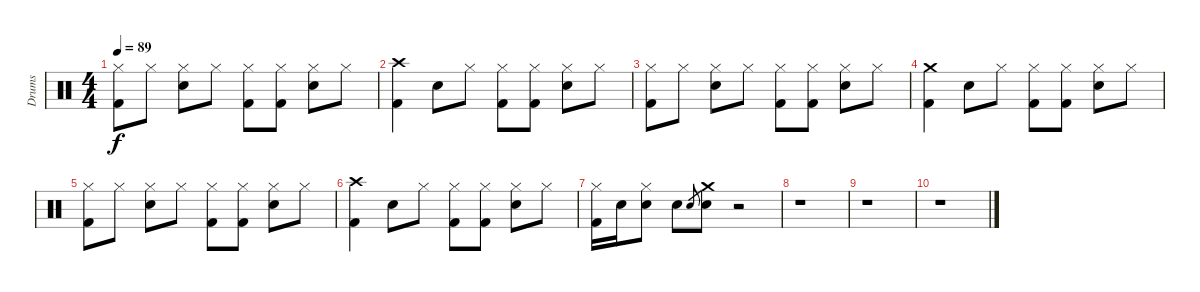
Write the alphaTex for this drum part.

\track ("Drums" "Drums") {instrument percussion}
\staff {score}
\articulation defaults
\ts (4 4)
\tempo 89
\clef neutral
\ks c
("Kick (hit) 2" "Hi-Hat (closed)").8{dy f} "Hi-Hat (closed)".8 ("Snare (hit) 2" "Hi-Hat (closed)").8 "Hi-Hat (closed)".8 ("Kick (hit) 2" "Hi-Hat (closed)").8 ("Kick (hit) 2" "Hi-Hat (closed)").8 ("Snare (hit) 2" "Hi-Hat (closed)").8 "Hi-Hat (closed)".8 |
("Kick (hit) 2" "Crash high (hit)").4 "Snare (hit) 2".8 "Hi-Hat (closed)".8 ("Kick (hit) 2" "Hi-Hat (closed)").8 ("Kick (hit) 2" "Hi-Hat (closed)").8 ("Snare (hit) 2" "Hi-Hat (closed)").8 "Hi-Hat (closed)".8 |
("Kick (hit) 2" "Hi-Hat (closed)").8 "Hi-Hat (closed)".8 ("Snare (hit) 2" "Hi-Hat (closed)").8 "Hi-Hat (closed)".8 ("Kick (hit) 2" "Hi-Hat (closed)").8 ("Kick (hit) 2" "Hi-Hat (closed)").8 ("Snare (hit) 2" "Hi-Hat (closed)").8 "Hi-Hat (closed)".8 |
("Kick (hit) 2" "Crash medium (hit)").4 "Snare (hit) 2".8 "Hi-Hat (closed)".8 ("Kick (hit) 2" "Hi-Hat (closed)").8 ("Kick (hit) 2" "Hi-Hat (closed)").8 ("Snare (hit) 2" "Hi-Hat (closed)").8 "Hi-Hat (closed)".8 |
("Kick (hit) 2" "Hi-Hat (closed)").8 "Hi-Hat (closed)".8 ("Snare (hit) 2" "Hi-Hat (closed)").8 "Hi-Hat (closed)".8 ("Kick (hit) 2" "Hi-Hat (closed)").8 ("Kick (hit) 2" "Hi-Hat (closed)").8 ("Snare (hit) 2" "Hi-Hat (closed)").8 "Hi-Hat (closed)".8 |
("Kick (hit) 2" "Crash high (hit)").4 "Snare (hit) 2".8 "Hi-Hat (closed)".8 ("Kick (hit) 2" "Hi-Hat (closed)").8 ("Kick (hit) 2" "Hi-Hat (closed)").8 ("Snare (hit) 2" "Hi-Hat (closed)").8 "Hi-Hat (closed)".8 |
("Kick (hit) 2" "Hi-Hat (closed)").16 "Snare (hit) 2".16 ("Snare (hit) 2" "Hi-Hat (closed)").8 "Snare (hit) 2".8 "Snare (hit) 2".8{gr} ("Snare (hit) 2" "Crash medium (hit)").8 r.2 |
r.1 |
r.1 |
r.1
